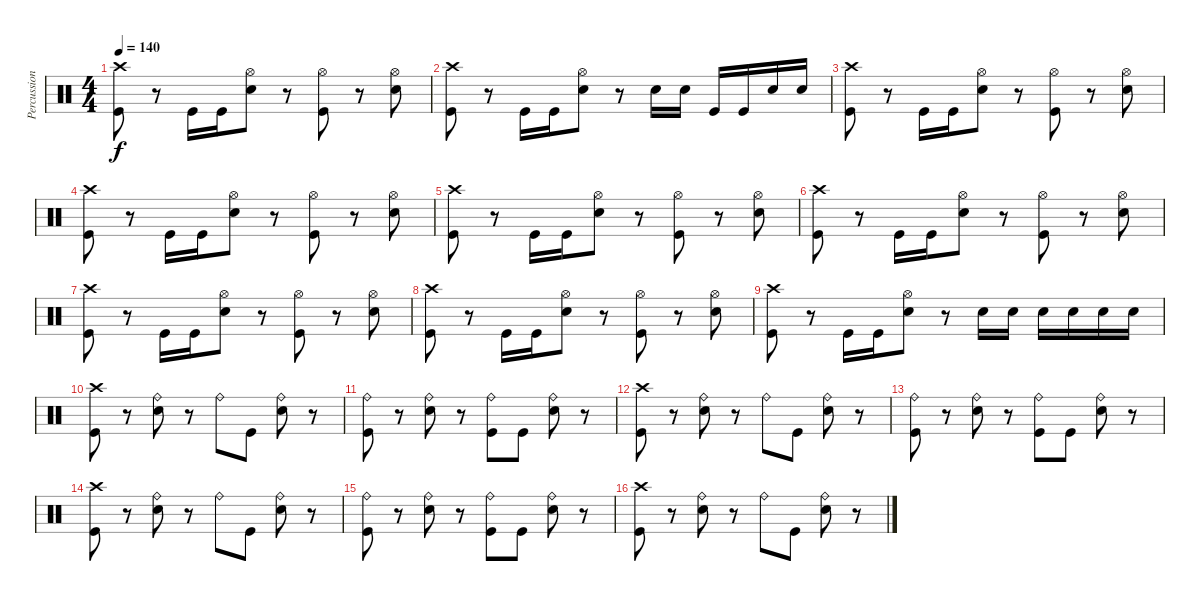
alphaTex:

\track ("Percussion" "Percussion") {instrument percussion}
\staff {score}
\articulation defaults
\ts (4 4)
\tempo 140
\clef neutral
\ks c
("Crash high (hit)" "Kick (hit)").8{dy f} r.8 "Kick (hit)".16 "Kick (hit)".16 ("Hi-Hat (open)" "Electric Snare (hit)").8 r.8 ("Hi-Hat (open)" "Kick (hit)").8 r.8 ("Hi-Hat (open)" "Electric Snare (hit)").8 |
("Crash high (hit)" "Kick (hit)").8 r.8 "Kick (hit)".16 "Kick (hit)".16 ("Hi-Hat (open)" "Electric Snare (hit)").8 r.8 "Electric Snare (hit)".16 "Electric Snare (hit)".16 "Kick (hit)".16 "Kick (hit)".16 "Electric Snare (hit)".16 "Electric Snare (hit)".16 |
("Crash high (hit)" "Kick (hit)").8 r.8 "Kick (hit)".16 "Kick (hit)".16 ("Hi-Hat (open)" "Electric Snare (hit)").8 r.8 ("Hi-Hat (open)" "Kick (hit)").8 r.8 ("Hi-Hat (open)" "Electric Snare (hit)").8 |
("Crash high (hit)" "Kick (hit)").8 r.8 "Kick (hit)".16 "Kick (hit)".16 ("Hi-Hat (open)" "Electric Snare (hit)").8 r.8 ("Hi-Hat (open)" "Kick (hit)").8 r.8 ("Hi-Hat (open)" "Electric Snare (hit)").8 |
("Crash high (hit)" "Kick (hit)").8 r.8 "Kick (hit)".16 "Kick (hit)".16 ("Hi-Hat (open)" "Electric Snare (hit)").8 r.8 ("Hi-Hat (open)" "Kick (hit)").8 r.8 ("Hi-Hat (open)" "Electric Snare (hit)").8 |
("Crash high (hit)" "Kick (hit)").8 r.8 "Kick (hit)".16 "Kick (hit)".16 ("Hi-Hat (open)" "Electric Snare (hit)").8 r.8 ("Hi-Hat (open)" "Kick (hit)").8 r.8 ("Hi-Hat (open)" "Electric Snare (hit)").8 |
("Crash high (hit)" "Kick (hit)").8 r.8 "Kick (hit)".16 "Kick (hit)".16 ("Hi-Hat (open)" "Electric Snare (hit)").8 r.8 ("Hi-Hat (open)" "Kick (hit)").8 r.8 ("Hi-Hat (open)" "Electric Snare (hit)").8 |
("Crash high (hit)" "Kick (hit)").8 r.8 "Kick (hit)".16 "Kick (hit)".16 ("Hi-Hat (open)" "Electric Snare (hit)").8 r.8 ("Hi-Hat (open)" "Kick (hit)").8 r.8 ("Hi-Hat (open)" "Electric Snare (hit)").8 |
("Crash high (hit)" "Kick (hit)").8 r.8 "Kick (hit)".16 "Kick (hit)".16 ("Hi-Hat (open)" "Electric Snare (hit)").8 r.8 "Electric Snare (hit)".16 "Electric Snare (hit)".16 "Electric Snare (hit)".16 "Electric Snare (hit)".16 "Electric Snare (hit)".16 "Electric Snare (hit)".16 |
("Crash high (hit)" "Kick (hit)").8 r.8 ("Ride (bell)" "Electric Snare (hit)").8 r.8 "Ride (bell)".8 "Kick (hit)".8 ("Ride (bell)" "Electric Snare (hit)").8 r.8 |
("Ride (bell)" "Kick (hit)").8 r.8 ("Ride (bell)" "Electric Snare (hit)").8 r.8 ("Ride (bell)" "Kick (hit)").8 "Kick (hit)".8 ("Ride (bell)" "Electric Snare (hit)").8 r.8 |
("Crash high (hit)" "Kick (hit)").8 r.8 ("Ride (bell)" "Electric Snare (hit)").8 r.8 "Ride (bell)".8 "Kick (hit)".8 ("Ride (bell)" "Electric Snare (hit)").8 r.8 |
("Ride (bell)" "Kick (hit)").8 r.8 ("Ride (bell)" "Electric Snare (hit)").8 r.8 ("Ride (bell)" "Kick (hit)").8 "Kick (hit)".8 ("Ride (bell)" "Electric Snare (hit)").8 r.8 |
("Crash high (hit)" "Kick (hit)").8 r.8 ("Ride (bell)" "Electric Snare (hit)").8 r.8 "Ride (bell)".8 "Kick (hit)".8 ("Ride (bell)" "Electric Snare (hit)").8 r.8 |
("Ride (bell)" "Kick (hit)").8 r.8 ("Ride (bell)" "Electric Snare (hit)").8 r.8 ("Ride (bell)" "Kick (hit)").8 "Kick (hit)".8 ("Ride (bell)" "Electric Snare (hit)").8 r.8 |
("Crash high (hit)" "Kick (hit)").8 r.8 ("Ride (bell)" "Electric Snare (hit)").8 r.8 "Ride (bell)".8 "Kick (hit)".8 ("Ride (bell)" "Electric Snare (hit)").8 r.8
